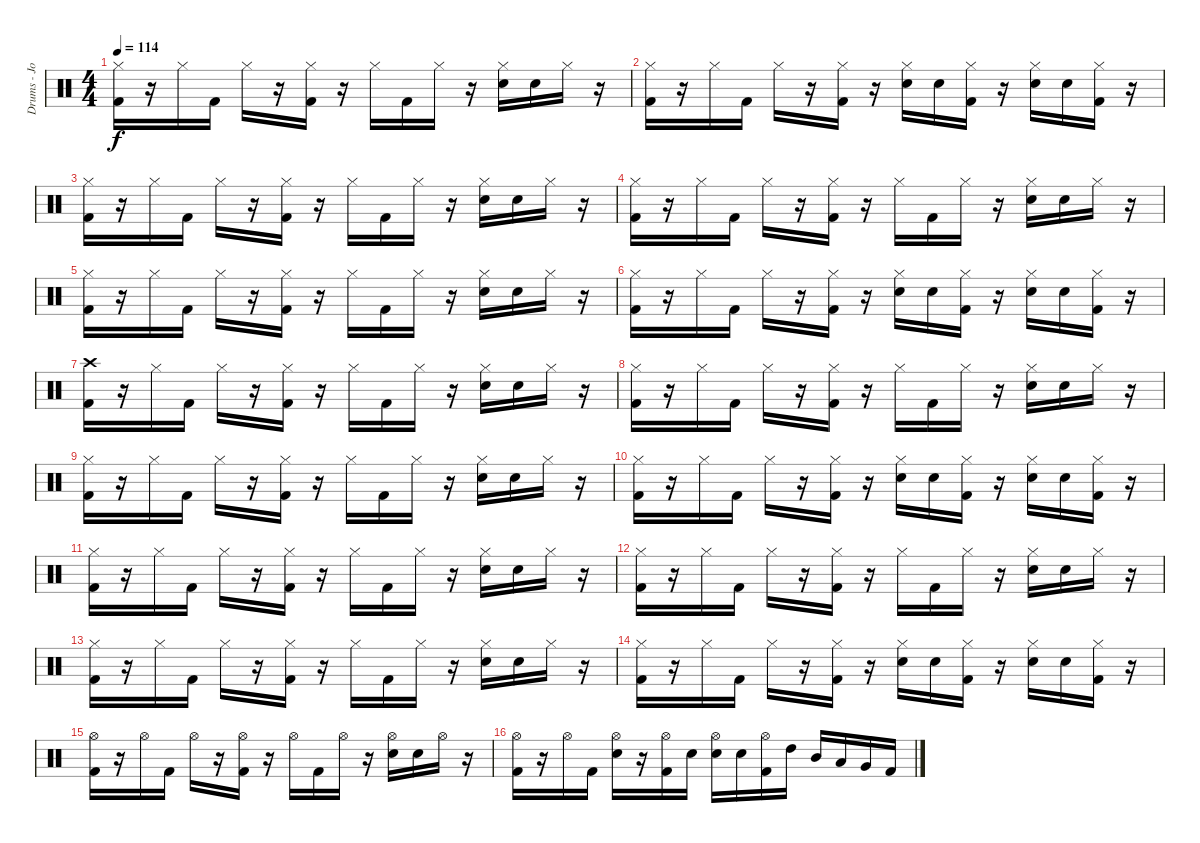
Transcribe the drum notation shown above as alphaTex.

\track ("Drums - Jon Wysocki" "Drums - Jo") {instrument percussion}
\staff {score}
\articulation defaults
\ts (4 4)
\tempo 114
\clef neutral
\ks c
("Hi-Hat (closed)" "Kick (hit) 2").16{dy f} r.16 "Hi-Hat (closed)".16 "Kick (hit) 2".16 "Hi-Hat (closed)".16 r.16 ("Hi-Hat (closed)" "Kick (hit) 2").16 r.16 "Hi-Hat (closed)".16 "Kick (hit) 2".16 "Hi-Hat (closed)".16 r.16 ("Hi-Hat (closed)" "Electric Snare (hit)").16 "Electric Snare (hit)".16 "Hi-Hat (closed)".16 r.16 |
("Hi-Hat (closed)" "Kick (hit) 2").16 r.16 "Hi-Hat (closed)".16 "Kick (hit) 2".16 "Hi-Hat (closed)".16 r.16 ("Hi-Hat (closed)" "Kick (hit) 2").16 r.16 ("Hi-Hat (closed)" "Electric Snare (hit)").16 "Electric Snare (hit)".16 ("Hi-Hat (closed)" "Kick (hit) 2").16 r.16 ("Hi-Hat (closed)" "Electric Snare (hit)").16 "Electric Snare (hit)".16 ("Hi-Hat (closed)" "Kick (hit) 2").16 r.16 |
("Hi-Hat (closed)" "Kick (hit) 2").16 r.16 "Hi-Hat (closed)".16 "Kick (hit) 2".16 "Hi-Hat (closed)".16 r.16 ("Hi-Hat (closed)" "Kick (hit) 2").16 r.16 "Hi-Hat (closed)".16 "Kick (hit) 2".16 "Hi-Hat (closed)".16 r.16 ("Hi-Hat (closed)" "Electric Snare (hit)").16 "Electric Snare (hit)".16 "Hi-Hat (closed)".16 r.16 |
("Hi-Hat (closed)" "Kick (hit) 2").16 r.16 "Hi-Hat (closed)".16 "Kick (hit) 2".16 "Hi-Hat (closed)".16 r.16 ("Hi-Hat (closed)" "Kick (hit) 2").16 r.16 "Hi-Hat (closed)".16 "Kick (hit) 2".16 "Hi-Hat (closed)".16 r.16 ("Hi-Hat (closed)" "Electric Snare (hit)").16 "Electric Snare (hit)".16 "Hi-Hat (closed)".16 r.16 |
("Hi-Hat (closed)" "Kick (hit) 2").16 r.16 "Hi-Hat (closed)".16 "Kick (hit) 2".16 "Hi-Hat (closed)".16 r.16 ("Hi-Hat (closed)" "Kick (hit) 2").16 r.16 "Hi-Hat (closed)".16 "Kick (hit) 2".16 "Hi-Hat (closed)".16 r.16 ("Hi-Hat (closed)" "Electric Snare (hit)").16 "Electric Snare (hit)".16 "Hi-Hat (closed)".16 r.16 |
("Hi-Hat (closed)" "Kick (hit) 2").16 r.16 "Hi-Hat (closed)".16 "Kick (hit) 2".16 "Hi-Hat (closed)".16 r.16 ("Hi-Hat (closed)" "Kick (hit) 2").16 r.16 ("Hi-Hat (closed)" "Electric Snare (hit)").16 "Electric Snare (hit)".16 ("Hi-Hat (closed)" "Kick (hit) 2").16 r.16 ("Hi-Hat (closed)" "Electric Snare (hit)").16 "Electric Snare (hit)".16 ("Hi-Hat (closed)" "Kick (hit) 2").16 r.16 |
("Crash high (hit)" "Kick (hit) 2").16 r.16 "Hi-Hat (closed)".16 "Kick (hit) 2".16 "Hi-Hat (closed)".16 r.16 ("Hi-Hat (closed)" "Kick (hit) 2").16 r.16 "Hi-Hat (closed)".16 "Kick (hit) 2".16 "Hi-Hat (closed)".16 r.16 ("Hi-Hat (closed)" "Electric Snare (hit)").16 "Electric Snare (hit)".16 "Hi-Hat (closed)".16 r.16 |
("Hi-Hat (closed)" "Kick (hit) 2").16 r.16 "Hi-Hat (closed)".16 "Kick (hit) 2".16 "Hi-Hat (closed)".16 r.16 ("Hi-Hat (closed)" "Kick (hit) 2").16 r.16 "Hi-Hat (closed)".16 "Kick (hit) 2".16 "Hi-Hat (closed)".16 r.16 ("Hi-Hat (closed)" "Electric Snare (hit)").16 "Electric Snare (hit)".16 "Hi-Hat (closed)".16 r.16 |
("Hi-Hat (closed)" "Kick (hit) 2").16 r.16 "Hi-Hat (closed)".16 "Kick (hit) 2".16 "Hi-Hat (closed)".16 r.16 ("Hi-Hat (closed)" "Kick (hit) 2").16 r.16 "Hi-Hat (closed)".16 "Kick (hit) 2".16 "Hi-Hat (closed)".16 r.16 ("Hi-Hat (closed)" "Electric Snare (hit)").16 "Electric Snare (hit)".16 "Hi-Hat (closed)".16 r.16 |
("Hi-Hat (closed)" "Kick (hit) 2").16 r.16 "Hi-Hat (closed)".16 "Kick (hit) 2".16 "Hi-Hat (closed)".16 r.16 ("Hi-Hat (closed)" "Kick (hit) 2").16 r.16 ("Hi-Hat (closed)" "Electric Snare (hit)").16 "Electric Snare (hit)".16 ("Hi-Hat (closed)" "Kick (hit) 2").16 r.16 ("Hi-Hat (closed)" "Electric Snare (hit)").16 "Electric Snare (hit)".16 ("Hi-Hat (closed)" "Kick (hit) 2").16 r.16 |
("Hi-Hat (closed)" "Kick (hit) 2").16 r.16 "Hi-Hat (closed)".16 "Kick (hit) 2".16 "Hi-Hat (closed)".16 r.16 ("Hi-Hat (closed)" "Kick (hit) 2").16 r.16 "Hi-Hat (closed)".16 "Kick (hit) 2".16 "Hi-Hat (closed)".16 r.16 ("Hi-Hat (closed)" "Electric Snare (hit)").16 "Electric Snare (hit)".16 "Hi-Hat (closed)".16 r.16 |
("Hi-Hat (closed)" "Kick (hit) 2").16 r.16 "Hi-Hat (closed)".16 "Kick (hit) 2".16 "Hi-Hat (closed)".16 r.16 ("Hi-Hat (closed)" "Kick (hit) 2").16 r.16 "Hi-Hat (closed)".16 "Kick (hit) 2".16 "Hi-Hat (closed)".16 r.16 ("Hi-Hat (closed)" "Electric Snare (hit)").16 "Electric Snare (hit)".16 "Hi-Hat (closed)".16 r.16 |
("Hi-Hat (closed)" "Kick (hit) 2").16 r.16 "Hi-Hat (closed)".16 "Kick (hit) 2".16 "Hi-Hat (closed)".16 r.16 ("Hi-Hat (closed)" "Kick (hit) 2").16 r.16 "Hi-Hat (closed)".16 "Kick (hit) 2".16 "Hi-Hat (closed)".16 r.16 ("Hi-Hat (closed)" "Electric Snare (hit)").16 "Electric Snare (hit)".16 "Hi-Hat (closed)".16 r.16 |
("Hi-Hat (closed)" "Kick (hit) 2").16 r.16 "Hi-Hat (closed)".16 "Kick (hit) 2".16 "Hi-Hat (closed)".16 r.16 ("Hi-Hat (closed)" "Kick (hit) 2").16 r.16 ("Hi-Hat (closed)" "Electric Snare (hit)").16 "Electric Snare (hit)".16 ("Hi-Hat (closed)" "Kick (hit) 2").16 r.16 ("Hi-Hat (closed)" "Electric Snare (hit)").16 "Electric Snare (hit)".16 ("Hi-Hat (closed)" "Kick (hit) 2").16 r.16 |
("Hi-Hat (open)" "Kick (hit) 2").16 r.16 "Hi-Hat (open)".16 "Kick (hit) 2".16 "Hi-Hat (open)".16 r.16 ("Hi-Hat (open)" "Kick (hit) 2").16 r.16 "Hi-Hat (open)".16 "Kick (hit) 2".16 "Hi-Hat (open)".16 r.16 ("Hi-Hat (open)" "Electric Snare (hit)").16 "Electric Snare (hit)".16 "Hi-Hat (open)".16 r.16 |
("Hi-Hat (open)" "Kick (hit) 2").16 r.16 "Hi-Hat (open)".16 "Kick (hit) 2".16 ("Hi-Hat (open)" "Electric Snare (hit)").16 r.16 ("Hi-Hat (open)" "Kick (hit) 2").16 "Electric Snare (hit)".16 ("Hi-Hat (open)" "Electric Snare (hit)").16 "Electric Snare (hit)".16 ("Hi-Hat (open)" "Kick (hit) 2").16 "High Tom (hit)".16 "Mid Tom (hit)".16 "Low Tom (hit)".16 "Very Low Tom (hit)".16 "Kick (hit) 2".16
